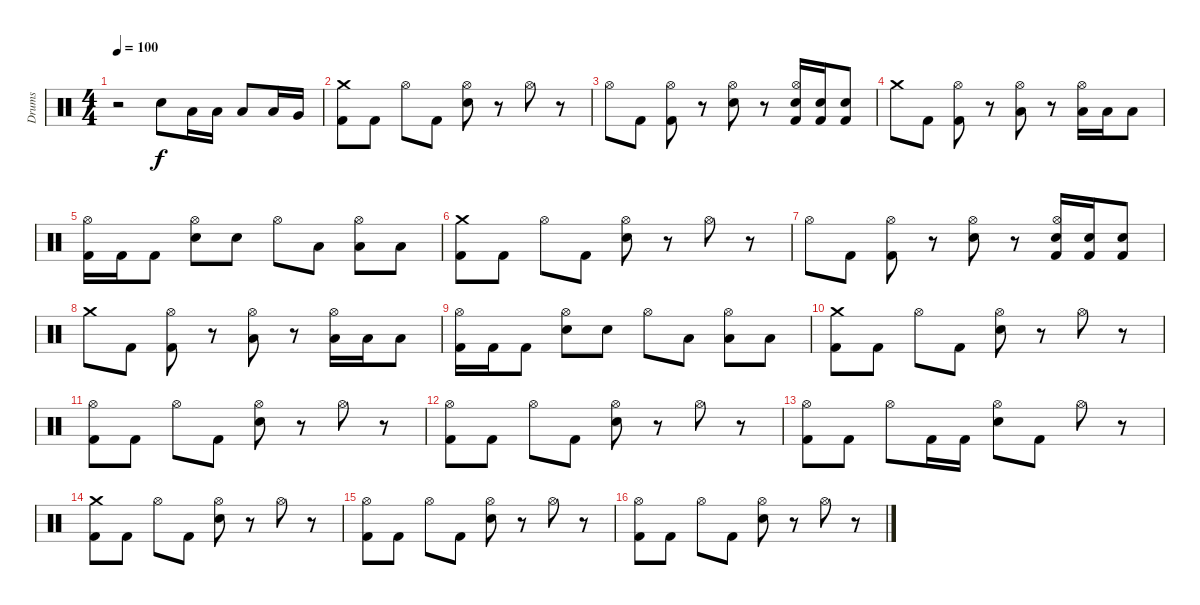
\track ("Drums" "Drums") {instrument percussion}
\staff {score}
\articulation defaults
\ts (4 4)
\tempo 100
\clef neutral
\ks c
r.2{dy f} "Snare (hit) 2".8 "Low Floor Tom (hit)".16 "Low Floor Tom (hit)".16 "Low Floor Tom (hit)".8 "Low Floor Tom (hit)".16 "Very Low Tom (hit)".16 |
("Kick (hit) 2" "Crash medium (hit)").8 "Kick (hit) 2".8 "Hi-Hat (open)".8 "Kick (hit) 2".8 ("Snare (hit) 2" "Hi-Hat (open)").8 r.8 "Hi-Hat (open)".8 r.8 |
"Hi-Hat (open)".8 "Kick (hit) 2".8 ("Kick (hit) 2" "Hi-Hat (open)").8 r.8 ("Snare (hit) 2" "Hi-Hat (open)").8 r.8 ("Electric Snare (hit)" "Kick (hit) 2" "Hi-Hat (open)").16 ("Electric Snare (hit)" "Kick (hit) 2").16 ("Electric Snare (hit)" "Kick (hit) 2").8 |
"Crash medium (hit)".8 "Kick (hit) 2".8 ("Kick (hit) 2" "Hi-Hat (open)").8 r.8 ("Low Floor Tom (hit)" "Hi-Hat (open)").8 r.8 ("Low Floor Tom (hit)" "Hi-Hat (open)").16 "Low Floor Tom (hit)".16 "Low Floor Tom (hit)".8 |
("Kick (hit) 2" "Hi-Hat (open)").16 "Kick (hit) 2".16 "Kick (hit) 2".8 ("Snare (hit) 2" "Hi-Hat (open)").8 "Snare (hit) 2".8 "Hi-Hat (open)".8 "Low Floor Tom (hit)".8 ("Low Floor Tom (hit)" "Hi-Hat (open)").8 "Low Floor Tom (hit)".8 |
("Kick (hit) 2" "Crash medium (hit)").8 "Kick (hit) 2".8 "Hi-Hat (open)".8 "Kick (hit) 2".8 ("Snare (hit) 2" "Hi-Hat (open)").8 r.8 "Hi-Hat (open)".8 r.8 |
"Hi-Hat (open)".8 "Kick (hit) 2".8 ("Kick (hit) 2" "Hi-Hat (open)").8 r.8 ("Snare (hit) 2" "Hi-Hat (open)").8 r.8 ("Electric Snare (hit)" "Kick (hit) 2" "Hi-Hat (open)").16 ("Electric Snare (hit)" "Kick (hit) 2").16 ("Electric Snare (hit)" "Kick (hit) 2").8 |
"Crash medium (hit)".8 "Kick (hit) 2".8 ("Kick (hit) 2" "Hi-Hat (open)").8 r.8 ("Low Floor Tom (hit)" "Hi-Hat (open)").8 r.8 ("Low Floor Tom (hit)" "Hi-Hat (open)").16 "Low Floor Tom (hit)".16 "Low Floor Tom (hit)".8 |
("Kick (hit) 2" "Hi-Hat (open)").16 "Kick (hit) 2".16 "Kick (hit) 2".8 ("Electric Snare (hit)" "Hi-Hat (open)").8 "Electric Snare (hit)".8 "Hi-Hat (open)".8 "Low Floor Tom (hit)".8 ("Low Floor Tom (hit)" "Hi-Hat (open)").8 "Low Floor Tom (hit)".8 |
("Kick (hit) 2" "Crash medium (hit)").8 "Kick (hit) 2".8 "Hi-Hat (open)".8 "Kick (hit) 2".8 ("Snare (hit) 2" "Hi-Hat (open)").8 r.8 "Hi-Hat (open)".8 r.8 |
("Kick (hit) 2" "Hi-Hat (open)").8 "Kick (hit) 2".8 "Hi-Hat (open)".8 "Kick (hit) 2".8 ("Snare (hit) 2" "Hi-Hat (open)").8 r.8 "Hi-Hat (open)".8 r.8 |
("Kick (hit) 2" "Hi-Hat (open)").8 "Kick (hit) 2".8 "Hi-Hat (open)".8 "Kick (hit) 2".8 ("Snare (hit) 2" "Hi-Hat (open)").8 r.8 "Hi-Hat (open)".8 r.8 |
("Kick (hit) 2" "Hi-Hat (open)").8 "Kick (hit) 2".8 "Hi-Hat (open)".8 "Kick (hit) 2".16 "Kick (hit) 2".16 ("Snare (hit) 2" "Hi-Hat (open)").8 "Kick (hit) 2".8 "Hi-Hat (open)".8 r.8 |
("Kick (hit) 2" "Crash medium (hit)").8 "Kick (hit) 2".8 "Hi-Hat (open)".8 "Kick (hit) 2".8 ("Snare (hit) 2" "Hi-Hat (open)").8 r.8 "Hi-Hat (open)".8 r.8 |
("Kick (hit) 2" "Hi-Hat (open)").8 "Kick (hit) 2".8 "Hi-Hat (open)".8 "Kick (hit) 2".8 ("Snare (hit) 2" "Hi-Hat (open)").8 r.8 "Hi-Hat (open)".8 r.8 |
("Kick (hit) 2" "Hi-Hat (open)").8 "Kick (hit) 2".8 "Hi-Hat (open)".8 "Kick (hit) 2".8 ("Snare (hit) 2" "Hi-Hat (open)").8 r.8 "Hi-Hat (open)".8 r.8
